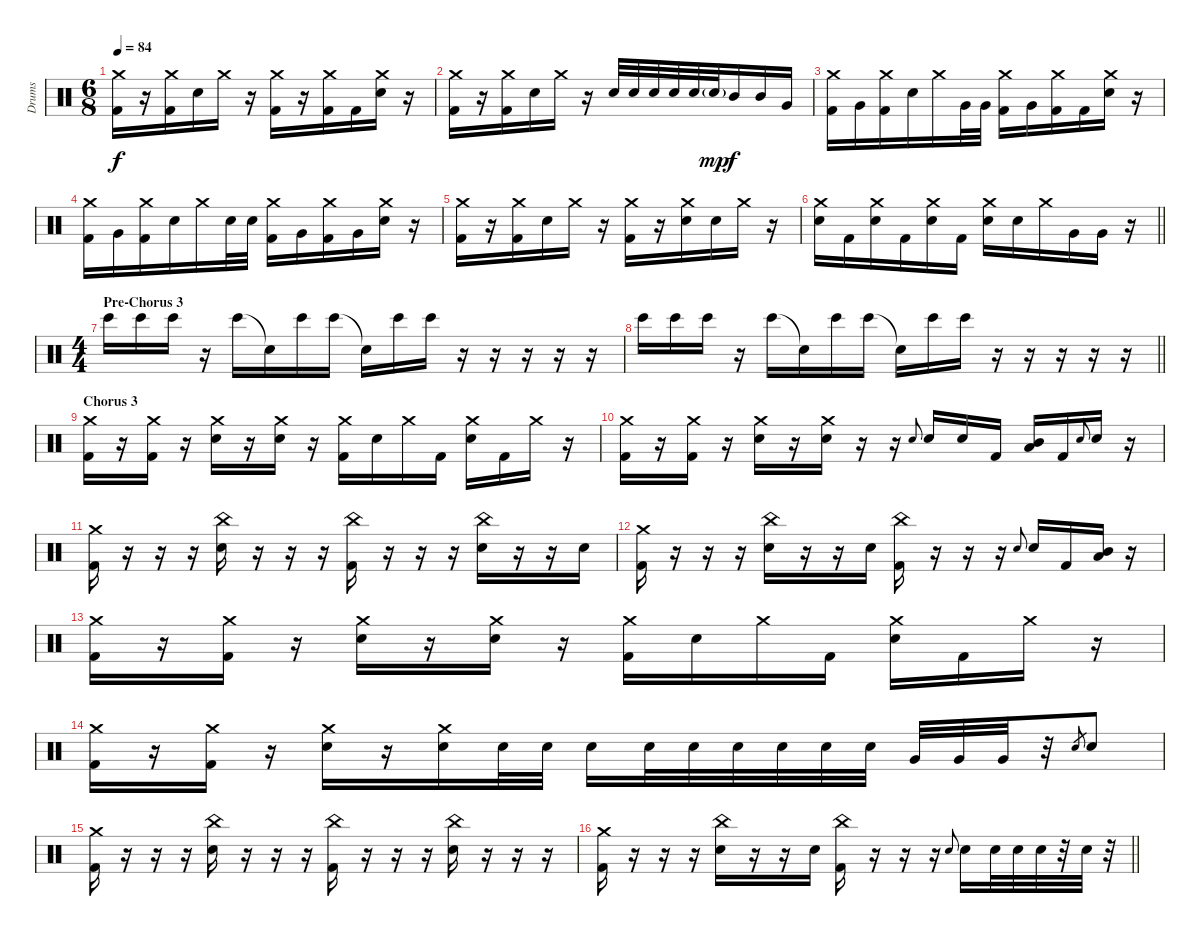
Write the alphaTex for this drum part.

\track ("Drums" "Drums") {instrument percussion}
\staff {score}
\articulation defaults
\ts (6 8)
\tempo 84
\clef neutral
\ks c
("Crash medium (hit)" "Kick (hit) 2").16{dy f} r.16 ("Crash medium (hit)" "Kick (hit) 2").16 "Electric Snare (hit)".16 "Crash medium (hit)".16 r.16 ("Crash medium (hit)" "Kick (hit) 2").16 r.16 ("Crash medium (hit)" "Kick (hit) 2").16 "Kick (hit) 2".16 ("Crash medium (hit)" "Electric Snare (hit)").16 r.16 |
("Crash medium (hit)" "Kick (hit) 2").16 r.16 ("Crash medium (hit)" "Kick (hit) 2").16 "Electric Snare (hit)".16 "Crash medium (hit)".16 r.16 "Electric Snare (hit)".32 "Electric Snare (hit)".32 "Electric Snare (hit)".32 "Electric Snare (hit)".32 "Electric Snare (hit)".32 "Snare (hit)"{g}.32{dy mp} "Mid Tom (hit)".16{dy f} "Mid Tom (hit)".16 "Very Low Tom (hit)".16 |
("Crash medium (hit)" "Kick (hit) 2").16 "Very Low Tom (hit)".16 ("Crash medium (hit)" "Kick (hit) 2").16 "Electric Snare (hit)".16 "Crash medium (hit)".16 "Very Low Tom (hit)".32 "Very Low Tom (hit)".32 ("Crash medium (hit)" "Kick (hit) 2").16 "Very Low Tom (hit)".16 ("Crash medium (hit)" "Kick (hit) 2").16 "Kick (hit) 2".16 ("Crash medium (hit)" "Electric Snare (hit)").16 r.16 |
("Crash medium (hit)" "Kick (hit) 2").16 "Very Low Tom (hit)".16 ("Crash medium (hit)" "Kick (hit) 2").16 "Electric Snare (hit)".16 "Crash medium (hit)".16 "Electric Snare (hit)".32 "Electric Snare (hit)".32 ("Crash medium (hit)" "Kick (hit) 2").16 "Very Low Tom (hit)".16 ("Crash medium (hit)" "Kick (hit) 2").16 "Very Low Tom (hit)".16 ("Crash medium (hit)" "Electric Snare (hit)").16 r.16 |
("Crash medium (hit)" "Kick (hit) 2").16 r.16 ("Crash medium (hit)" "Kick (hit) 2").16 "Electric Snare (hit)".16 "Crash medium (hit)".16 r.16 ("Crash medium (hit)" "Kick (hit) 2").16 r.16 ("Crash medium (hit)" "Electric Snare (hit)").16 "Electric Snare (hit)".16 "Crash medium (hit)".16 r.16 |
\barLineRight lightlight
("Crash medium (hit)" "Electric Snare (hit)").16 "Kick (hit) 2".16 ("Crash medium (hit)" "Electric Snare (hit)").16 "Kick (hit) 2".16 ("Crash medium (hit)" "Electric Snare (hit)").16 "Kick (hit) 2".16 ("Crash medium (hit)" "Electric Snare (hit)").16 "Electric Snare (hit)".16 "Crash medium (hit)".16 "Very Low Tom (hit)".16 "Very Low Tom (hit)".16 r.16 |
\ts (4 4)
\section ("" "Pre-Chorus 3")
"Bongo High (hit)".16 "Bongo High (hit)".16 "Bongo High (hit)".16 r.16 "Bongo High (hit)".16 "Snare (hit)"{t}.16 "Bongo High (hit)".16 "Bongo High (hit)".16 "Snare (hit)"{t}.16 "Bongo High (hit)".16 "Bongo High (hit)".16 r.16 r.16 r.16 r.16 r.16 |
\barLineRight lightlight "Bongo High (hit)".16 "Bongo High (hit)".16 "Bongo High (hit)".16
r.16 "Bongo High (hit)".16 "Snare (hit)"{t}.16 "Bongo High (hit)".16 "Bongo High (hit)".16 "Snare (hit)"{t}.16 "Bongo High (hit)".16 "Bongo High (hit)".16 r.16 r.16 r.16 r.16 r.16 |
\section ("" "Chorus 3")
("Crash medium (hit)" "Kick (hit) 2").16 r.16 ("Crash medium (hit)" "Kick (hit) 2").16 r.16 ("Crash medium (hit)" "Electric Snare (hit)").16 r.16 ("Crash medium (hit)" "Electric Snare (hit)").16 r.16 ("Crash medium (hit)" "Kick (hit) 2").16 "Electric Snare (hit)".16 "Crash medium (hit)".16 "Kick (hit) 2".16 ("Crash medium (hit)" "Electric Snare (hit)").16 "Kick (hit) 2".16 "Crash medium (hit)".16 r.16 |
("Crash medium (hit)" "Kick (hit) 2").16 r.16 ("Crash medium (hit)" "Kick (hit) 2").16 r.16 ("Crash medium (hit)" "Electric Snare (hit)").16 r.16 ("Crash medium (hit)" "Electric Snare (hit)").16 r.16 r.16 "Electric Snare (hit)".8{gr onbeat} "Electric Snare (hit)".16 "Electric Snare (hit)".16 "Kick (hit) 2".16 ("Mid Tom (hit)" "Low Tom (hit)").16 "Kick (hit) 2".16 "Electric Snare (hit)".8{gr onbeat} "Electric Snare (hit)".16 r.16 |
("Crash medium (hit)" "Kick (hit) 2").16 r.16 r.16 r.16 ("China (hit)" "Electric Snare (hit)").16 r.16 r.16 r.16 ("China (hit)" "Kick (hit) 2").16 r.16 r.16 r.16 ("China (hit)" "Electric Snare (hit)").16 r.16 r.16 "Electric Snare (hit)".16 |
("Crash medium (hit)" "Kick (hit) 2").16 r.16 r.16 r.16 ("China (hit)" "Electric Snare (hit)").16 r.16 r.16 "Electric Snare (hit)".16 ("China (hit)" "Kick (hit) 2").16 r.16 r.16 r.16 "Electric Snare (hit)".8{gr onbeat} "Electric Snare (hit)".16 "Kick (hit) 2".16 ("Mid Tom (hit)" "Low Tom (hit)").16 r.16 |
("Crash medium (hit)" "Kick (hit) 2").16 r.16 ("Crash medium (hit)" "Kick (hit) 2").16 r.16 ("Crash medium (hit)" "Electric Snare (hit)").16 r.16 ("Crash medium (hit)" "Electric Snare (hit)").16 r.16 ("Crash medium (hit)" "Kick (hit) 2").16 "Electric Snare (hit)".16 "Crash medium (hit)".16 "Kick (hit) 2".16 ("Crash medium (hit)" "Electric Snare (hit)").16 "Kick (hit) 2".16 "Crash medium (hit)".16 r.16 |
("Crash medium (hit)" "Kick (hit) 2").16 r.16 ("Crash medium (hit)" "Kick (hit) 2").16 r.16 ("Crash medium (hit)" "Electric Snare (hit)").16 r.16 ("Crash medium (hit)" "Electric Snare (hit)").16 "Electric Snare (hit)".32 "Electric Snare (hit)".32 "Electric Snare (hit)".16 "Electric Snare (hit)".32 "Electric Snare (hit)".32 "Electric Snare (hit)".32 "Electric Snare (hit)".32 "Electric Snare (hit)".32 "Electric Snare (hit)".32 "Very Low Tom (hit)".32 "Very Low Tom (hit)".32 "Very Low Tom (hit)".32 r.32 "Electric Snare (hit)".8{gr} "Electric Snare (hit)".8 |
("Crash medium (hit)" "Kick (hit) 2").16 r.16 r.16 r.16 ("China (hit)" "Electric Snare (hit)").16 r.16 r.16 r.16 ("China (hit)" "Kick (hit) 2").16 r.16 r.16 r.16 ("China (hit)" "Electric Snare (hit)").16 r.16 r.16 r.16 |
\barLineRight lightlight
("Crash medium (hit)" "Kick (hit) 2").16 r.16 r.16 r.16 ("China (hit)" "Electric Snare (hit)").16 r.16 r.16 "Electric Snare (hit)".16 ("China (hit)" "Kick (hit) 2").16 r.16 r.16 r.16 "Electric Snare (hit)".8{gr onbeat} "Electric Snare (hit)".16 "Electric Snare (hit)".32 "Electric Snare (hit)".32 "Electric Snare (hit)".32 r.32 "Electric Snare (hit)".32 r.32
